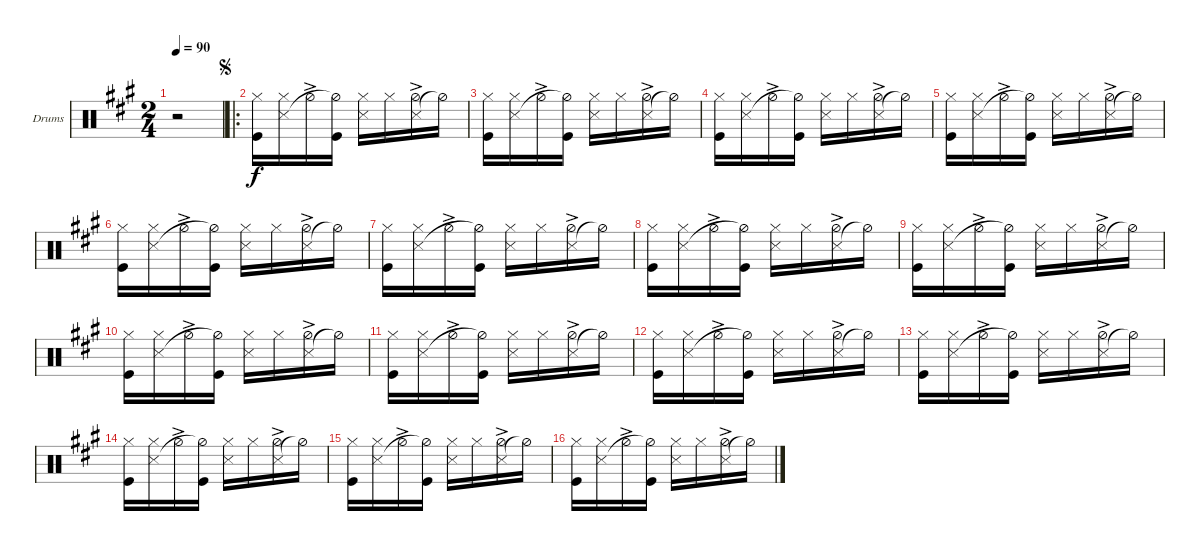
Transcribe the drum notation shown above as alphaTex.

\defaultSystemsLayout 4
\bracketExtendMode groupsimilarinstruments
\firstSystemTrackNameOrientation horizontal
\otherSystemsTrackNameOrientation horizontal
\track ("Bateria" "Drums") {instrument percussion}
\staff {score}
\articulation defaults
\ts (2 4)
\tempo 90
\clef neutral
\scale
1.35309
\ks a
r.2{dy f} |
\ro
\jump segno
\scale
0.911728 ("Hi-Hat (closed)" "Kick (hit)").16 ("Hi-Hat (closed)" "Snare (side stick) 3").16 "Hi-Hat (half)"{ac}.16 ("Kick (hit)" "Hi-Hat (half)"{t}).16 ("Hi-Hat (closed)" "Snare (side stick) 3").16 "Hi-Hat (closed)".16 ("Snare (side stick) 3" "Hi-Hat (half)"{ac}).16 "Hi-Hat (half)"{t}.16 |
\scale
0.911728 ("Hi-Hat (closed)" "Kick (hit)").16 ("Hi-Hat (closed)" "Snare (side stick) 3").16 "Hi-Hat (half)"{ac}.16 ("Kick (hit)" "Hi-Hat (half)"{t}).16 ("Hi-Hat (closed)" "Snare (side stick) 3").16 "Hi-Hat (closed)".16 ("Snare (side stick) 3" "Hi-Hat (half)"{ac}).16 "Hi-Hat (half)"{t}.16 |
\scale
0.911728 ("Hi-Hat (closed)" "Kick (hit)").16 ("Hi-Hat (closed)" "Snare (side stick) 3").16 "Hi-Hat (half)"{ac}.16 ("Kick (hit)" "Hi-Hat (half)"{t}).16 ("Hi-Hat (closed)" "Snare (side stick) 3").16 "Hi-Hat (closed)".16 ("Snare (side stick) 3" "Hi-Hat (half)"{ac}).16 "Hi-Hat (half)"{t}.16 |
\scale
0.911728 ("Hi-Hat (closed)" "Kick (hit)").16 ("Hi-Hat (closed)" "Snare (side stick) 3").16 "Hi-Hat (half)"{ac}.16 ("Kick (hit)" "Hi-Hat (half)"{t}).16 ("Hi-Hat (closed)" "Snare (side stick) 3").16 "Hi-Hat (closed)".16 ("Snare (side stick) 3" "Hi-Hat (half)"{ac}).16 "Hi-Hat (half)"{t}.16 |
\scale
1.23203 ("Hi-Hat (closed)" "Kick (hit)").16 ("Hi-Hat (closed)" "Snare (side stick) 3").16 "Hi-Hat (half)"{ac}.16 ("Kick (hit)" "Hi-Hat (half)"{t}).16 ("Hi-Hat (closed)" "Snare (side stick) 3").16 "Hi-Hat (closed)".16 ("Snare (side stick) 3" "Hi-Hat (half)"{ac}).16 "Hi-Hat (half)"{t}.16 |
\scale
0.941992 ("Hi-Hat (closed)" "Kick (hit)").16 ("Hi-Hat (closed)" "Snare (side stick) 3").16 "Hi-Hat (half)"{ac}.16 ("Kick (hit)" "Hi-Hat (half)"{t}).16 ("Hi-Hat (closed)" "Snare (side stick) 3").16 "Hi-Hat (closed)".16 ("Snare (side stick) 3" "Hi-Hat (half)"{ac}).16 "Hi-Hat (half)"{t}.16 |
\scale
0.941992 ("Hi-Hat (closed)" "Kick (hit)").16 ("Hi-Hat (closed)" "Snare (side stick) 3").16 "Hi-Hat (half)"{ac}.16 ("Kick (hit)" "Hi-Hat (half)"{t}).16 ("Hi-Hat (closed)" "Snare (side stick) 3").16 "Hi-Hat (closed)".16 ("Snare (side stick) 3" "Hi-Hat (half)"{ac}).16 "Hi-Hat (half)"{t}.16 |
\scale
0.941992 ("Hi-Hat (closed)" "Kick (hit)").16 ("Hi-Hat (closed)" "Snare (side stick) 3").16 "Hi-Hat (half)"{ac}.16 ("Kick (hit)" "Hi-Hat (half)"{t}).16 ("Hi-Hat (closed)" "Snare (side stick) 3").16 "Hi-Hat (closed)".16 ("Snare (side stick) 3" "Hi-Hat (half)"{ac}).16 "Hi-Hat (half)"{t}.16 |
\scale
0.941992 ("Hi-Hat (closed)" "Kick (hit)").16 ("Hi-Hat (closed)" "Snare (side stick) 3").16 "Hi-Hat (half)"{ac}.16 ("Kick (hit)" "Hi-Hat (half)"{t}).16 ("Hi-Hat (closed)" "Snare (side stick) 3").16 "Hi-Hat (closed)".16 ("Snare (side stick) 3" "Hi-Hat (half)"{ac}).16 "Hi-Hat (half)"{t}.16 |
\scale
1.23203 ("Hi-Hat (closed)" "Kick (hit)").16 ("Hi-Hat (closed)" "Snare (side stick) 3").16 "Hi-Hat (half)"{ac}.16 ("Kick (hit)" "Hi-Hat (half)"{t}).16 ("Hi-Hat (closed)" "Snare (side stick) 3").16 "Hi-Hat (closed)".16 ("Snare (side stick) 3" "Hi-Hat (half)"{ac}).16 "Hi-Hat (half)"{t}.16 |
\scale
0.941992 ("Hi-Hat (closed)" "Kick (hit)").16 ("Hi-Hat (closed)" "Snare (side stick) 3").16 "Hi-Hat (half)"{ac}.16 ("Kick (hit)" "Hi-Hat (half)"{t}).16 ("Hi-Hat (closed)" "Snare (side stick) 3").16 "Hi-Hat (closed)".16 ("Snare (side stick) 3" "Hi-Hat (half)"{ac}).16 "Hi-Hat (half)"{t}.16 |
\scale
0.941992 ("Hi-Hat (closed)" "Kick (hit)").16 ("Hi-Hat (closed)" "Snare (side stick) 3").16 "Hi-Hat (half)"{ac}.16 ("Kick (hit)" "Hi-Hat (half)"{t}).16 ("Hi-Hat (closed)" "Snare (side stick) 3").16 "Hi-Hat (closed)".16 ("Snare (side stick) 3" "Hi-Hat (half)"{ac}).16 "Hi-Hat (half)"{t}.16 |
\scale
0.941992 ("Hi-Hat (closed)" "Kick (hit)").16 ("Hi-Hat (closed)" "Snare (side stick) 3").16 "Hi-Hat (half)"{ac}.16 ("Kick (hit)" "Hi-Hat (half)"{t}).16 ("Hi-Hat (closed)" "Snare (side stick) 3").16 "Hi-Hat (closed)".16 ("Snare (side stick) 3" "Hi-Hat (half)"{ac}).16 "Hi-Hat (half)"{t}.16 |
\scale
0.941992 ("Hi-Hat (closed)" "Kick (hit)").16 ("Hi-Hat (closed)" "Snare (side stick) 3").16 "Hi-Hat (half)"{ac}.16 ("Kick (hit)" "Hi-Hat (half)"{t}).16 ("Hi-Hat (closed)" "Snare (side stick) 3").16 "Hi-Hat (closed)".16 ("Snare (side stick) 3" "Hi-Hat (half)"{ac}).16 "Hi-Hat (half)"{t}.16 |
\scale
1.23203 ("Hi-Hat (closed)" "Kick (hit)").16 ("Hi-Hat (closed)" "Snare (side stick) 3").16 "Hi-Hat (half)"{ac}.16 ("Kick (hit)" "Hi-Hat (half)"{t}).16 ("Hi-Hat (closed)" "Snare (side stick) 3").16 "Hi-Hat (closed)".16 ("Snare (side stick) 3" "Hi-Hat (half)"{ac}).16 "Hi-Hat (half)"{t}.16
